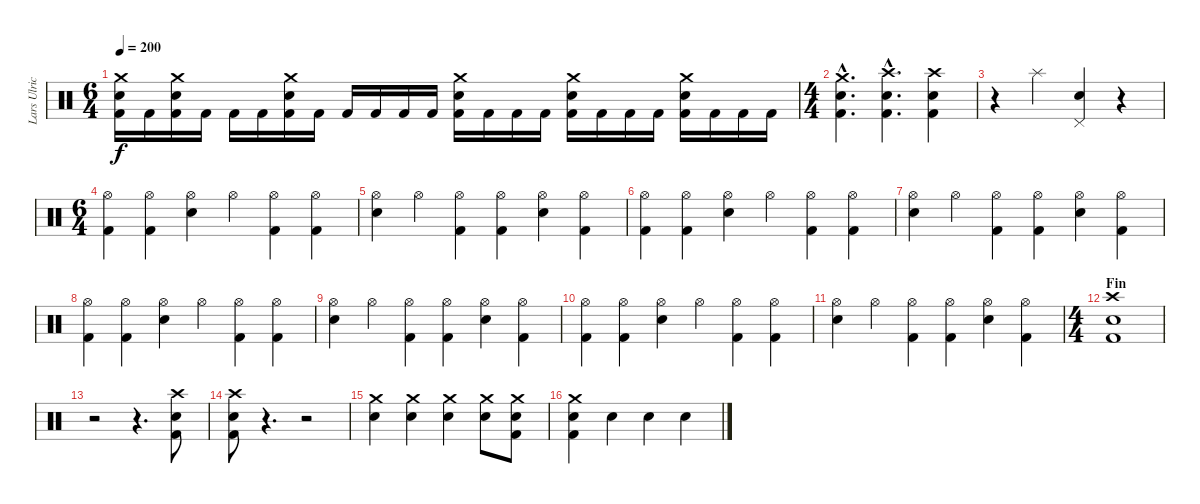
\track ("Lars Ulrich" "Lars Ulric") {instrument percussion}
\staff {score}
\articulation defaults
\ts (6 4)
\tempo 200
\clef neutral
\ks c
("Crash medium (hit)" "Electric Snare (hit)" "Kick (hit) 2").16{dy f} "Kick (hit) 2".16 ("Crash medium (hit)" "Electric Snare (hit)" "Kick (hit) 2").16 "Kick (hit) 2".16 "Kick (hit) 2".16 "Kick (hit) 2".16 ("Crash medium (hit)" "Electric Snare (hit)" "Kick (hit) 2").16 "Kick (hit) 2".16 "Kick (hit) 2".16 "Kick (hit) 2".16 "Kick (hit) 2".16 "Kick (hit) 2".16 ("Crash medium (hit)" "Electric Snare (hit)" "Kick (hit) 2").16 "Kick (hit) 2".16 "Kick (hit) 2".16 "Kick (hit) 2".16 ("Crash medium (hit)" "Electric Snare (hit)" "Kick (hit) 2").16 "Kick (hit) 2".16 "Kick (hit) 2".16 "Kick (hit) 2".16 ("Crash medium (hit)" "Electric Snare (hit)" "Kick (hit) 2").16 "Kick (hit) 2".16 "Kick (hit) 2".16 "Kick (hit) 2".16 |
\ts (4 4)
("Crash medium (hit)"{hac} "Electric Snare (hit)"{hac} "Kick (hit) 2"{hac}).4{d} ("Crash high (hit)"{hac} "Electric Snare (hit)"{hac} "Kick (hit) 2"{hac}).4{d} ("Crash high (hit)" "Electric Snare (hit)" "Kick (hit) 2").4 |
r.4 "Splash (hit)".4 ("Pedal Hi-Hat (hit)" "Electric Snare (hit)").4 r.4 |
\ts (6 4)
("Hi-Hat (open)" "Kick (hit) 2").4 ("Hi-Hat (open)" "Kick (hit) 2").4 ("Hi-Hat (open)" "Electric Snare (hit)").4 "Hi-Hat (open)".4 ("Hi-Hat (open)" "Kick (hit) 2").4 ("Hi-Hat (open)" "Kick (hit) 2").4 |
("Hi-Hat (open)" "Electric Snare (hit)").4 "Hi-Hat (open)".4 ("Hi-Hat (open)" "Kick (hit) 2").4 ("Hi-Hat (open)" "Kick (hit) 2").4 ("Hi-Hat (open)" "Electric Snare (hit)").4 ("Hi-Hat (open)" "Kick (hit) 2").4 |
("Hi-Hat (open)" "Kick (hit) 2").4 ("Hi-Hat (open)" "Kick (hit) 2").4 ("Hi-Hat (open)" "Electric Snare (hit)").4 "Hi-Hat (open)".4 ("Hi-Hat (open)" "Kick (hit) 2").4 ("Hi-Hat (open)" "Kick (hit) 2").4 |
("Hi-Hat (open)" "Electric Snare (hit)").4 "Hi-Hat (open)".4 ("Hi-Hat (open)" "Kick (hit) 2").4 ("Hi-Hat (open)" "Kick (hit) 2").4 ("Hi-Hat (open)" "Electric Snare (hit)").4 ("Hi-Hat (open)" "Kick (hit) 2").4 |
("Hi-Hat (open)" "Kick (hit) 2").4 ("Hi-Hat (open)" "Kick (hit) 2").4 ("Hi-Hat (open)" "Electric Snare (hit)").4 "Hi-Hat (open)".4 ("Hi-Hat (open)" "Kick (hit) 2").4 ("Hi-Hat (open)" "Kick (hit) 2").4 |
("Hi-Hat (open)" "Electric Snare (hit)").4 "Hi-Hat (open)".4 ("Hi-Hat (open)" "Kick (hit) 2").4 ("Hi-Hat (open)" "Kick (hit) 2").4 ("Hi-Hat (open)" "Electric Snare (hit)").4 ("Hi-Hat (open)" "Kick (hit) 2").4 |
("Hi-Hat (open)" "Kick (hit) 2").4 ("Hi-Hat (open)" "Kick (hit) 2").4 ("Hi-Hat (open)" "Electric Snare (hit)").4 "Hi-Hat (open)".4 ("Hi-Hat (open)" "Kick (hit) 2").4 ("Hi-Hat (open)" "Kick (hit) 2").4 |
("Hi-Hat (open)" "Electric Snare (hit)").4 "Hi-Hat (open)".4 ("Hi-Hat (open)" "Kick (hit) 2").4 ("Hi-Hat (open)" "Kick (hit) 2").4 ("Hi-Hat (open)" "Electric Snare (hit)").4 ("Hi-Hat (open)" "Kick (hit) 2").4 |
\ts (4 4)
\section ("" "Fin")
("Crash high (hit)" "Electric Snare (hit)" "Kick (hit) 2").1 |
r.2 r.4{d} ("Crash high (hit)" "Electric Snare (hit)" "Kick (hit) 2").8 |
("Crash high (hit)" "Electric Snare (hit)" "Kick (hit) 2").8 r.4{d} r.2 |
("Crash medium (hit)" "Electric Snare (hit)").4 ("Crash medium (hit)" "Electric Snare (hit)").4 ("Crash medium (hit)" "Electric Snare (hit)").4 ("Crash medium (hit)" "Electric Snare (hit)").8 ("Crash medium (hit)" "Electric Snare (hit)" "Kick (hit) 2").8 |
("Crash medium (hit)" "Electric Snare (hit)" "Kick (hit) 2").4 "Electric Snare (hit)".4 "Electric Snare (hit)".4 "Electric Snare (hit)".4
